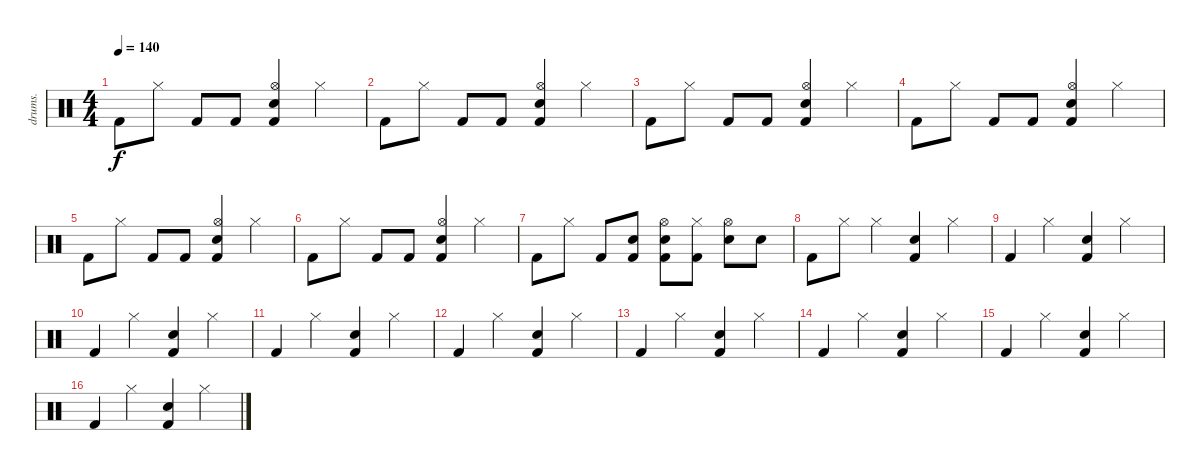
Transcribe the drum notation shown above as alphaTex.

\track ("drums." "drums.") {instrument percussion}
\staff {score}
\articulation defaults
\ts (4 4)
\tempo 140
\clef neutral
\ks c "Kick (hit) 2".8{dy f} "Hi-Hat (closed)".8 "Kick (hit) 2".8 "Kick (hit) 2".8
("Hi-Hat (open)" "Electric Snare (hit)" "Kick (hit) 2").4 "Hi-Hat (closed)".4 |
"Kick (hit) 2".8 "Hi-Hat (closed)".8 "Kick (hit) 2".8 "Kick (hit) 2".8 ("Hi-Hat (open)" "Electric Snare (hit)" "Kick (hit) 2").4 "Hi-Hat (closed)".4 |
"Kick (hit) 2".8 "Hi-Hat (closed)".8 "Kick (hit) 2".8 "Kick (hit) 2".8 ("Hi-Hat (open)" "Electric Snare (hit)" "Kick (hit) 2").4 "Hi-Hat (closed)".4 |
"Kick (hit) 2".8 "Hi-Hat (closed)".8 "Kick (hit) 2".8 "Kick (hit) 2".8 ("Hi-Hat (open)" "Electric Snare (hit)" "Kick (hit) 2").4 "Hi-Hat (closed)".4 |
"Kick (hit) 2".8 "Hi-Hat (closed)".8 "Kick (hit) 2".8 "Kick (hit) 2".8 ("Hi-Hat (open)" "Electric Snare (hit)" "Kick (hit) 2").4 "Hi-Hat (closed)".4 |
"Kick (hit) 2".8 "Hi-Hat (closed)".8 "Kick (hit) 2".8 "Kick (hit) 2".8 ("Hi-Hat (open)" "Electric Snare (hit)" "Kick (hit) 2").4 "Hi-Hat (closed)".4 |
"Kick (hit) 2".8 "Hi-Hat (closed)".8 "Kick (hit) 2".8 ("Snare (hit) 2" "Kick (hit) 2").8 ("Hi-Hat (open)" "Snare (hit) 2" "Kick (hit) 2").8 ("Kick (hit) 2" "Hi-Hat (closed)").8 ("Hi-Hat (open)" "Snare (hit) 2").8 "Snare (hit) 2".8 |
"Kick (hit) 2".8 "Hi-Hat (closed)".8 "Hi-Hat (closed)".4 ("Electric Snare (hit)" "Kick (hit) 2").4 "Hi-Hat (closed)".4 |
"Kick (hit) 2".4 "Hi-Hat (closed)".4 ("Electric Snare (hit)" "Kick (hit) 2").4 "Hi-Hat (closed)".4 |
"Kick (hit) 2".4 "Hi-Hat (closed)".4 ("Electric Snare (hit)" "Kick (hit) 2").4 "Hi-Hat (closed)".4 |
"Kick (hit) 2".4 "Hi-Hat (closed)".4 ("Electric Snare (hit)" "Kick (hit) 2").4 "Hi-Hat (closed)".4 |
"Kick (hit) 2".4 "Hi-Hat (closed)".4 ("Electric Snare (hit)" "Kick (hit) 2").4 "Hi-Hat (closed)".4 |
"Kick (hit) 2".4 "Hi-Hat (closed)".4 ("Electric Snare (hit)" "Kick (hit) 2").4 "Hi-Hat (closed)".4 |
"Kick (hit) 2".4 "Hi-Hat (closed)".4 ("Electric Snare (hit)" "Kick (hit) 2").4 "Hi-Hat (closed)".4 |
"Kick (hit) 2".4 "Hi-Hat (closed)".4 ("Electric Snare (hit)" "Kick (hit) 2").4 "Hi-Hat (closed)".4 |
"Kick (hit) 2".4 "Hi-Hat (closed)".4 ("Electric Snare (hit)" "Kick (hit) 2").4 "Hi-Hat (closed)".4
